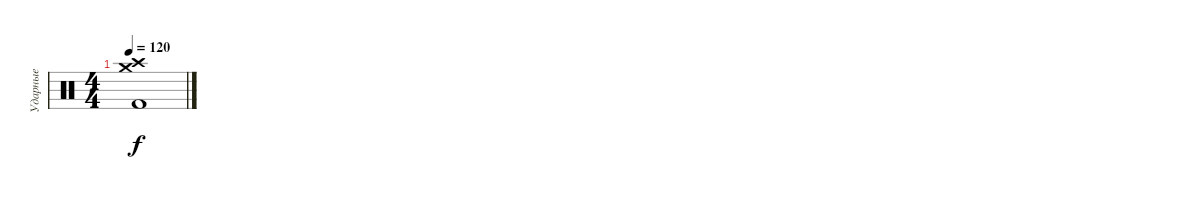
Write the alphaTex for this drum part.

\track ("Ударные" "Ударные") {instrument percussion}
\staff {score}
\articulation defaults
\ts (4 4)
\tempo 120
\clef neutral
\ks c
("Crash high (hit)" "Crash medium (hit)" "Kick (hit) 2").1{dy f}
